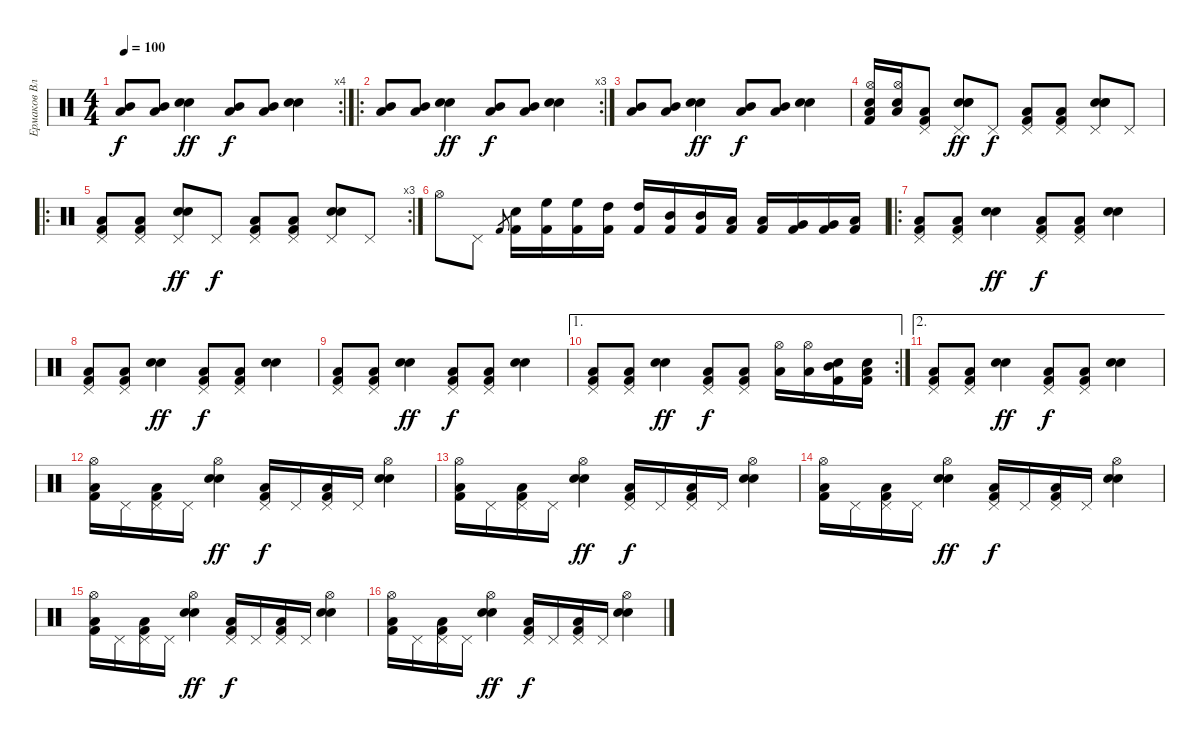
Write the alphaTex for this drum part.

\track ("Ермаков Владимир" "Ермаков Вл") {instrument percussion}
\staff {score}
\articulation defaults
\rc 4
\ts (4 4)
\tempo 100
\clef neutral
\ks c
("Mid Tom (hit)" "Low Floor Tom (hit)").8{dy f} ("Mid Tom (hit)" "Low Floor Tom (hit)").8 ("Hand Clap (hit)" "Hand Clap (hit)").4{dy ff} ("Mid Tom (hit)" "Low Floor Tom (hit)").8{dy f} ("Mid Tom (hit)" "Low Floor Tom (hit)").8 ("Hand Clap (hit)" "Hand Clap (hit)").4 |
\ro
\rc 3
("Mid Tom (hit)" "Low Floor Tom (hit)").8 ("Mid Tom (hit)" "Low Floor Tom (hit)").8 ("Hand Clap (hit)" "Hand Clap (hit)").4{dy ff} ("Mid Tom (hit)" "Low Floor Tom (hit)").8{dy f} ("Mid Tom (hit)" "Low Floor Tom (hit)").8 ("Hand Clap (hit)" "Hand Clap (hit)").4 |
("Mid Tom (hit)" "Low Floor Tom (hit)").8 ("Mid Tom (hit)" "Low Floor Tom (hit)").8 ("Hand Clap (hit)" "Hand Clap (hit)").4{dy ff} ("Mid Tom (hit)" "Low Floor Tom (hit)").8{dy f} ("Mid Tom (hit)" "Low Floor Tom (hit)").8 ("Hand Clap (hit)" "Hand Clap (hit)").4 |
("Kick (hit) 2" "Hi-Hat (open)" "Electric Snare (hit)" "Low Floor Tom (hit)").16 ("Hi-Hat (open)" "Electric Snare (hit)" "Low Floor Tom (hit)").16 ("Kick (hit) 2" "Pedal Hi-Hat (hit)" "Low Floor Tom (hit)").8 ("Hand Clap (hit)" "Electric Snare (hit)" "Pedal Hi-Hat (hit)" "Hand Clap (hit)").8{dy ff} "Pedal Hi-Hat (hit)".8{dy f} ("Kick (hit) 2" "Pedal Hi-Hat (hit)" "Low Floor Tom (hit)").8 ("Kick (hit) 2" "Pedal Hi-Hat (hit)" "Low Floor Tom (hit)").8 ("Hand Clap (hit)" "Electric Snare (hit)" "Pedal Hi-Hat (hit)" "Hand Clap (hit)").8 "Pedal Hi-Hat (hit)".8 |
\ro
\rc 3
("Kick (hit) 2" "Pedal Hi-Hat (hit)" "Low Floor Tom (hit)").8 ("Kick (hit) 2" "Pedal Hi-Hat (hit)" "Low Floor Tom (hit)").8 ("Hand Clap (hit)" "Electric Snare (hit)" "Pedal Hi-Hat (hit)").8{dy ff} "Pedal Hi-Hat (hit)".8{dy f} ("Kick (hit) 2" "Pedal Hi-Hat (hit)" "Low Floor Tom (hit)").8 ("Kick (hit) 2" "Pedal Hi-Hat (hit)" "Low Floor Tom (hit)").8 ("Hand Clap (hit)" "Electric Snare (hit)" "Pedal Hi-Hat (hit)").8 "Pedal Hi-Hat (hit)".8 |
"Hi-Hat (open)".8 "Pedal Hi-Hat (hit)".8 "Kick (hit) 2".8{gr} ("Kick (hit) 2" "Electric Snare (hit)").16 ("Kick (hit) 2" "High Floor Tom (hit)").16 ("Kick (hit) 2" "High Floor Tom (hit)").16 ("Kick (hit) 2" "High Tom (hit)").16 ("Kick (hit) 2" "High Tom (hit)").16 ("Kick (hit) 2" "Mid Tom (hit)").16 ("Kick (hit) 2" "Mid Tom (hit)").16 ("Kick (hit) 2" "Low Tom (hit)").16 ("Kick (hit) 2" "Low Tom (hit)").16 ("Kick (hit) 2" "Very Low Tom (hit)").16 ("Kick (hit) 2" "Very Low Tom (hit)").16 ("Kick (hit) 2" "Low Floor Tom (hit)").16 |
\ro
("Kick (hit) 2" "Pedal Hi-Hat (hit)" "Low Floor Tom (hit)").8 ("Kick (hit) 2" "Pedal Hi-Hat (hit)" "Low Floor Tom (hit)").8 ("Hand Clap (hit)" "Electric Snare (hit)").4{dy ff} ("Kick (hit) 2" "Pedal Hi-Hat (hit)" "Low Floor Tom (hit)").8{dy f} ("Kick (hit) 2" "Pedal Hi-Hat (hit)" "Low Floor Tom (hit)").8 ("Hand Clap (hit)" "Electric Snare (hit)").4 |
("Kick (hit) 2" "Pedal Hi-Hat (hit)" "Low Floor Tom (hit)").8 ("Kick (hit) 2" "Pedal Hi-Hat (hit)" "Low Floor Tom (hit)").8 ("Hand Clap (hit)" "Electric Snare (hit)").4{dy ff} ("Kick (hit) 2" "Pedal Hi-Hat (hit)" "Low Floor Tom (hit)").8{dy f} ("Kick (hit) 2" "Pedal Hi-Hat (hit)" "Low Floor Tom (hit)").8 ("Hand Clap (hit)" "Electric Snare (hit)").4 |
("Kick (hit) 2" "Pedal Hi-Hat (hit)" "Low Floor Tom (hit)").8 ("Kick (hit) 2" "Pedal Hi-Hat (hit)" "Low Floor Tom (hit)").8 ("Hand Clap (hit)" "Electric Snare (hit)").4{dy ff} ("Kick (hit) 2" "Pedal Hi-Hat (hit)" "Low Floor Tom (hit)").8{dy f} ("Kick (hit) 2" "Pedal Hi-Hat (hit)" "Low Floor Tom (hit)").8 ("Hand Clap (hit)" "Electric Snare (hit)").4 |
\ae 1
\rc 2
("Kick (hit) 2" "Pedal Hi-Hat (hit)" "Low Floor Tom (hit)").8 ("Kick (hit) 2" "Pedal Hi-Hat (hit)" "Low Floor Tom (hit)").8 ("Hand Clap (hit)" "Electric Snare (hit)").4{dy ff} ("Kick (hit) 2" "Pedal Hi-Hat (hit)" "Low Floor Tom (hit)").8{dy f} ("Kick (hit) 2" "Pedal Hi-Hat (hit)" "Low Floor Tom (hit)").8 ("Low Floor Tom (hit)" "Hi-Hat (open)").16 ("Low Tom (hit)" "Hi-Hat (open)").16 ("Kick (hit) 2" "Mid Tom (hit)" "Snare (hit)").16 ("Kick (hit) 2" "Low Tom (hit)" "Snare (hit)").16 |
\ae 2
("Kick (hit) 2" "Pedal Hi-Hat (hit)" "Low Floor Tom (hit)").8 ("Kick (hit) 2" "Pedal Hi-Hat (hit)" "Low Floor Tom (hit)").8 ("Hand Clap (hit)" "Electric Snare (hit)").4{dy ff} ("Kick (hit) 2" "Pedal Hi-Hat (hit)" "Low Floor Tom (hit)").8{dy f} ("Kick (hit) 2" "Pedal Hi-Hat (hit)" "Low Floor Tom (hit)").8 ("Hand Clap (hit)" "Electric Snare (hit)").4 |
("Kick (hit) 2" "Hi-Hat (open)" "Low Floor Tom (hit)").16 "Pedal Hi-Hat (hit)".16 ("Kick (hit) 2" "Pedal Hi-Hat (hit)" "Low Floor Tom (hit)").16 "Pedal Hi-Hat (hit)".16 ("Hand Clap (hit)" "Electric Snare (hit)" "Hi-Hat (open)").4{dy ff} ("Kick (hit) 2" "Pedal Hi-Hat (hit)" "Low Floor Tom (hit)").16{dy f} "Pedal Hi-Hat (hit)".16 ("Kick (hit) 2" "Pedal Hi-Hat (hit)" "Low Floor Tom (hit)").16 "Pedal Hi-Hat (hit)".16 ("Hand Clap (hit)" "Electric Snare (hit)" "Hi-Hat (open)").4 |
("Kick (hit) 2" "Hi-Hat (open)" "Low Floor Tom (hit)").16 "Pedal Hi-Hat (hit)".16 ("Kick (hit) 2" "Pedal Hi-Hat (hit)" "Low Floor Tom (hit)").16 "Pedal Hi-Hat (hit)".16 ("Hand Clap (hit)" "Electric Snare (hit)" "Hi-Hat (open)").4{dy ff} ("Kick (hit) 2" "Pedal Hi-Hat (hit)" "Low Floor Tom (hit)").16{dy f} "Pedal Hi-Hat (hit)".16 ("Kick (hit) 2" "Pedal Hi-Hat (hit)" "Low Floor Tom (hit)").16 "Pedal Hi-Hat (hit)".16 ("Hand Clap (hit)" "Electric Snare (hit)" "Hi-Hat (open)").4 |
("Kick (hit) 2" "Hi-Hat (open)" "Low Floor Tom (hit)").16 "Pedal Hi-Hat (hit)".16 ("Kick (hit) 2" "Pedal Hi-Hat (hit)" "Low Floor Tom (hit)").16 "Pedal Hi-Hat (hit)".16 ("Hand Clap (hit)" "Electric Snare (hit)" "Hi-Hat (open)").4{dy ff} ("Kick (hit) 2" "Pedal Hi-Hat (hit)" "Low Floor Tom (hit)").16{dy f} "Pedal Hi-Hat (hit)".16 ("Kick (hit) 2" "Pedal Hi-Hat (hit)" "Low Floor Tom (hit)").16 "Pedal Hi-Hat (hit)".16 ("Hand Clap (hit)" "Electric Snare (hit)" "Hi-Hat (open)").4 |
("Kick (hit) 2" "Hi-Hat (open)" "Low Floor Tom (hit)").16 "Pedal Hi-Hat (hit)".16 ("Kick (hit) 2" "Pedal Hi-Hat (hit)" "Low Floor Tom (hit)").16 "Pedal Hi-Hat (hit)".16 ("Hand Clap (hit)" "Electric Snare (hit)" "Hi-Hat (open)").4{dy ff} ("Kick (hit) 2" "Pedal Hi-Hat (hit)" "Low Floor Tom (hit)").16{dy f} "Pedal Hi-Hat (hit)".16 ("Kick (hit) 2" "Pedal Hi-Hat (hit)" "Low Floor Tom (hit)").16 "Pedal Hi-Hat (hit)".16 ("Hand Clap (hit)" "Electric Snare (hit)" "Hi-Hat (open)").4 |
("Kick (hit) 2" "Hi-Hat (open)" "Low Floor Tom (hit)").16 "Pedal Hi-Hat (hit)".16 ("Kick (hit) 2" "Pedal Hi-Hat (hit)" "Low Floor Tom (hit)").16 "Pedal Hi-Hat (hit)".16 ("Hand Clap (hit)" "Electric Snare (hit)" "Hi-Hat (open)").4{dy ff} ("Kick (hit) 2" "Pedal Hi-Hat (hit)" "Low Floor Tom (hit)").16{dy f} "Pedal Hi-Hat (hit)".16 ("Kick (hit) 2" "Pedal Hi-Hat (hit)" "Low Floor Tom (hit)").16 "Pedal Hi-Hat (hit)".16 ("Hand Clap (hit)" "Electric Snare (hit)" "Hi-Hat (open)").4
